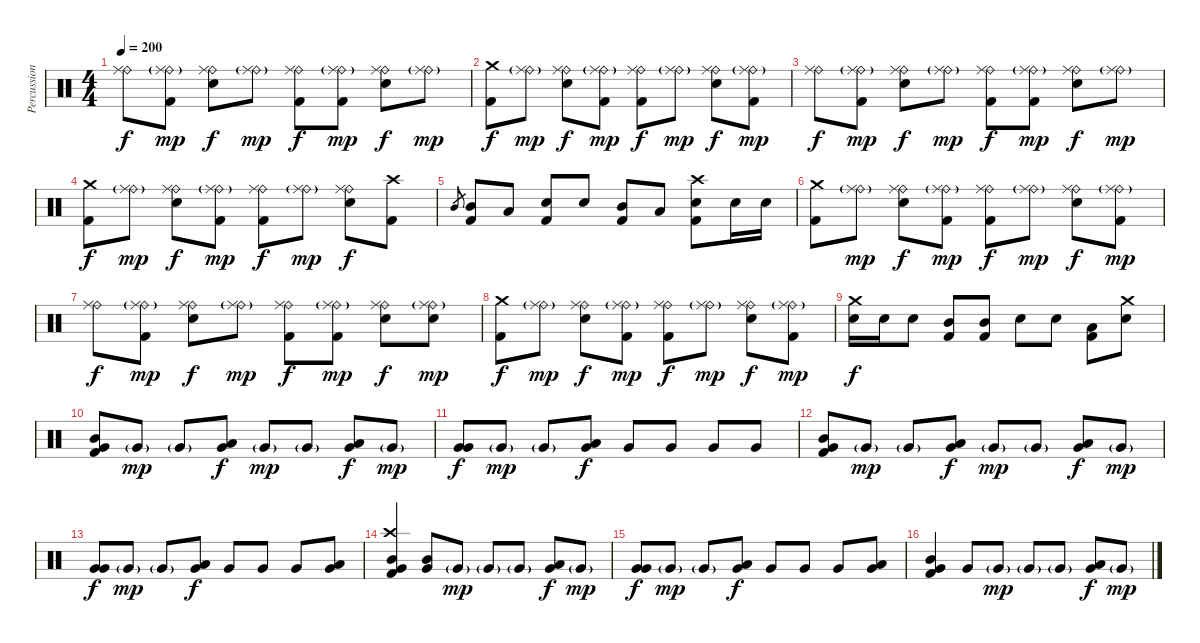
\track ("Percussion" "Percussion") {instrument percussion}
\staff {score}
\articulation defaults
\ts (4 4)
\tempo 200
\clef neutral
\ks c
("Ride (bell)" "Ride (middle)").8{dy f} ("Ride (bell)"{g} "Ride (middle)" "Kick (hit) 2").8{dy mp} ("Ride (bell)" "Ride (middle)" "Electric Snare (hit)").8{dy f} ("Ride (bell)"{g} "Ride (middle)").8{dy mp} ("Ride (bell)" "Ride (middle)" "Kick (hit) 2").8{dy f} ("Ride (bell)"{g} "Ride (middle)" "Kick (hit) 2").8{dy mp} ("Ride (bell)" "Ride (middle)" "Electric Snare (hit)").8{dy f} ("Ride (bell)"{g} "Ride (middle)").8{dy mp} |
("Crash medium (hit)" "Kick (hit) 2").8{dy f} ("Ride (bell)"{g} "Ride (middle)").8{dy mp} ("Ride (bell)" "Ride (middle)" "Electric Snare (hit)").8{dy f} ("Ride (bell)"{g} "Ride (middle)" "Kick (hit) 2").8{dy mp} ("Ride (bell)" "Ride (middle)" "Kick (hit) 2").8{dy f} ("Ride (bell)"{g} "Ride (middle)").8{dy mp} ("Ride (bell)" "Ride (middle)" "Electric Snare (hit)").8{dy f} ("Ride (bell)"{g} "Ride (middle)" "Kick (hit) 2").8{dy mp} |
("Ride (bell)" "Ride (middle)").8{dy f} ("Ride (bell)"{g} "Ride (middle)" "Kick (hit) 2").8{dy mp} ("Ride (bell)" "Ride (middle)" "Electric Snare (hit)").8{dy f} ("Ride (bell)"{g} "Ride (middle)").8{dy mp} ("Ride (bell)" "Ride (middle)" "Kick (hit) 2").8{dy f} ("Ride (bell)"{g} "Ride (middle)" "Kick (hit) 2").8{dy mp} ("Ride (bell)" "Ride (middle)" "Electric Snare (hit)").8{dy f} ("Ride (bell)"{g} "Ride (middle)").8{dy mp} |
("Crash medium (hit)" "Kick (hit) 2").8{dy f} ("Ride (bell)"{g} "Ride (middle)").8{dy mp} ("Ride (bell)" "Ride (middle)" "Electric Snare (hit)").8{dy f} ("Ride (bell)"{g} "Ride (middle)" "Kick (hit) 2").8{dy mp} ("Ride (bell)" "Ride (middle)" "Kick (hit) 2").8{dy f} ("Ride (bell)"{g} "Ride (middle)").8{dy mp} ("Ride (bell)" "Ride (middle)" "Electric Snare (hit)").8{dy f} ("Crash high (hit)" "Kick (hit) 2").8 |
"Mid Tom (hit)".8{gr} ("Mid Tom (hit)" "Kick (hit) 2").8 "Low Tom (hit)".8 ("Electric Snare (hit)" "Kick (hit) 2").8 "Electric Snare (hit)".8 ("Mid Tom (hit)" "Kick (hit) 2").8 "Low Tom (hit)".8 ("Crash high (hit)" "Electric Snare (hit)" "Kick (hit) 2").8 "Electric Snare (hit)".16 "Electric Snare (hit)".16 |
("Crash medium (hit)" "Kick (hit) 2").8 ("Ride (bell)"{g} "Ride (middle)").8{dy mp} ("Ride (bell)" "Ride (middle)" "Electric Snare (hit)").8{dy f} ("Ride (bell)"{g} "Ride (middle)" "Kick (hit) 2").8{dy mp} ("Ride (bell)" "Ride (middle)" "Kick (hit) 2").8{dy f} ("Ride (bell)"{g} "Ride (middle)").8{dy mp} ("Ride (bell)" "Ride (middle)" "Electric Snare (hit)").8{dy f} ("Ride (bell)"{g} "Ride (middle)" "Kick (hit) 2").8{dy mp} |
("Ride (bell)" "Ride (middle)").8{dy f} ("Ride (bell)"{g} "Ride (middle)" "Kick (hit) 2").8{dy mp} ("Ride (bell)" "Ride (middle)" "Electric Snare (hit)").8{dy f} ("Ride (bell)"{g} "Ride (middle)").8{dy mp} ("Ride (bell)" "Ride (middle)" "Kick (hit) 2").8{dy f} ("Ride (bell)"{g} "Ride (middle)" "Kick (hit) 2").8{dy mp} ("Ride (bell)" "Ride (middle)" "Electric Snare (hit)").8{dy f} ("Ride (bell)"{g} "Ride (middle)" "Electric Snare (hit)").8{dy mp} |
("Crash medium (hit)" "Kick (hit) 2").8{dy f} ("Ride (bell)"{g} "Ride (middle)").8{dy mp} ("Ride (bell)" "Ride (middle)" "Electric Snare (hit)").8{dy f} ("Ride (bell)"{g} "Ride (middle)" "Kick (hit) 2").8{dy mp} ("Ride (bell)" "Ride (middle)" "Kick (hit) 2").8{dy f} ("Ride (bell)"{g} "Ride (middle)").8{dy mp} ("Ride (bell)" "Ride (middle)" "Electric Snare (hit)").8{dy f} ("Ride (bell)"{g} "Ride (middle)" "Kick (hit) 2").8{dy mp} |
("Crash medium (hit)" "Electric Snare (hit)").16{dy f} "Electric Snare (hit)".16 "Electric Snare (hit)".8 ("Mid Tom (hit)" "Kick (hit) 2").8 ("Mid Tom (hit)" "Kick (hit) 2").8 "Electric Snare (hit)".8 "Electric Snare (hit)".8 ("Low Tom (hit)" "Kick (hit) 2").8 ("Crash medium (hit)" "Electric Snare (hit)").8 |
("Mid Tom (hit)" "Very Low Tom (hit)" "Kick (hit) 2").8 "Very Low Tom (hit)"{g}.8{dy mp} "Very Low Tom (hit)"{g}.8 ("Low Tom (hit)" "Very Low Tom (hit)").8{dy f} "Very Low Tom (hit)"{g}.8{dy mp} "Very Low Tom (hit)"{g}.8 ("Low Floor Tom (hit)" "Very Low Tom (hit)").8{dy f} "Very Low Tom (hit)"{g}.8{dy mp} |
("Very Low Tom (hit)" "Very Low Tom (hit)").8{dy f} "Very Low Tom (hit)"{g}.8{dy mp} "Very Low Tom (hit)"{g}.8 ("Low Tom (hit)" "Very Low Tom (hit)").8{dy f} "Very Low Tom (hit)".8 "Very Low Tom (hit)".8 "Very Low Tom (hit)".8 "Very Low Tom (hit)".8 |
("Mid Tom (hit)" "Very Low Tom (hit)" "Kick (hit) 2").8 "Very Low Tom (hit)"{g}.8{dy mp} "Very Low Tom (hit)"{g}.8 ("Low Tom (hit)" "Very Low Tom (hit)").8{dy f} "Very Low Tom (hit)"{g}.8{dy mp} "Very Low Tom (hit)"{g}.8 ("Low Floor Tom (hit)" "Very Low Tom (hit)").8{dy f} "Very Low Tom (hit)"{g}.8{dy mp} |
("Very Low Tom (hit)" "Very Low Tom (hit)").8{dy f} "Very Low Tom (hit)"{g}.8{dy mp} "Very Low Tom (hit)"{g}.8 ("Low Tom (hit)" "Very Low Tom (hit)").8{dy f} "Very Low Tom (hit)".8 "Very Low Tom (hit)".8 "Very Low Tom (hit)".8 ("Low Floor Tom (hit)" "Very Low Tom (hit)").8 |
("Crash high (hit)" "Mid Tom (hit)" "Very Low Tom (hit)" "Kick (hit) 2").4 ("Mid Tom (hit)" "Very Low Tom (hit)").8 "Very Low Tom (hit)"{g}.8{dy mp} "Very Low Tom (hit)"{g}.8 "Very Low Tom (hit)"{g}.8 ("Low Floor Tom (hit)" "Very Low Tom (hit)").8{dy f} "Very Low Tom (hit)"{g}.8{dy mp} |
("Very Low Tom (hit)" "Very Low Tom (hit)").8{dy f} "Very Low Tom (hit)"{g}.8{dy mp} "Very Low Tom (hit)"{g}.8 ("Low Tom (hit)" "Very Low Tom (hit)").8{dy f} "Very Low Tom (hit)".8 "Very Low Tom (hit)".8 "Very Low Tom (hit)".8 ("Low Floor Tom (hit)" "Very Low Tom (hit)").8 |
("Mid Tom (hit)" "Very Low Tom (hit)" "Kick (hit) 2").4 "Very Low Tom (hit)".8 "Very Low Tom (hit)"{g}.8{dy mp} "Very Low Tom (hit)"{g}.8 "Very Low Tom (hit)"{g}.8 ("Low Floor Tom (hit)" "Very Low Tom (hit)").8{dy f} "Very Low Tom (hit)"{g}.8{dy mp}
